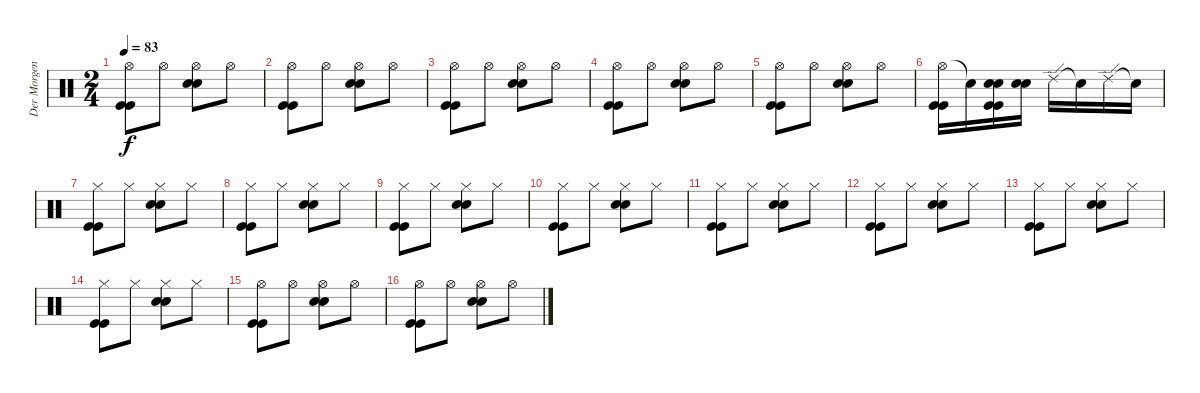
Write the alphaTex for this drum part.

\track ("Der Morgenstern" "Der Morgen") {instrument percussion}
\staff {score}
\articulation defaults
\ts (2 4)
\tempo 83
\clef neutral
\ks c
("Hi-Hat (open)" "Kick (hit)" "Kick (hit)").8{dy f} "Hi-Hat (open)".8 ("Hi-Hat (open)" "Electric Snare (hit)" "Electric Snare (hit)").8 "Hi-Hat (open)".8 |
("Hi-Hat (open)" "Kick (hit)" "Kick (hit)").8 "Hi-Hat (open)".8 ("Hi-Hat (open)" "Electric Snare (hit)" "Electric Snare (hit)").8 "Hi-Hat (open)".8 |
("Hi-Hat (open)" "Kick (hit)" "Kick (hit)").8 "Hi-Hat (open)".8 ("Hi-Hat (open)" "Electric Snare (hit)" "Electric Snare (hit)").8 "Hi-Hat (open)".8 |
("Hi-Hat (open)" "Kick (hit)" "Kick (hit)").8 "Hi-Hat (open)".8 ("Hi-Hat (open)" "Electric Snare (hit)" "Electric Snare (hit)").8 "Hi-Hat (open)".8 |
("Hi-Hat (open)" "Kick (hit)" "Kick (hit)").8 "Hi-Hat (open)".8 ("Hi-Hat (open)" "Electric Snare (hit)" "Electric Snare (hit)").8 "Hi-Hat (open)".8 |
("Hi-Hat (open)" "Kick (hit)" "Kick (hit)").16 "Snare (hit)"{t}.16 ("Electric Snare (hit)" "Electric Snare (hit)" "Kick (hit)" "Kick (hit)").16 ("Electric Snare (hit)" "Electric Snare (hit)").16 "Ride (edge) 2".16 "Snare (hit)"{t}.16 "Ride (edge) 2".16 "Snare (hit)"{t}.16 |
("Hi-Hat (closed)" "Kick (hit)" "Kick (hit)").8 "Hi-Hat (closed)".8 ("Hi-Hat (closed)" "Electric Snare (hit)" "Electric Snare (hit)").8 "Hi-Hat (closed)".8 |
("Hi-Hat (closed)" "Kick (hit)" "Kick (hit)").8 "Hi-Hat (closed)".8 ("Hi-Hat (closed)" "Electric Snare (hit)" "Electric Snare (hit)").8 "Hi-Hat (closed)".8 |
("Hi-Hat (closed)" "Kick (hit)" "Kick (hit)").8 "Hi-Hat (closed)".8 ("Hi-Hat (closed)" "Electric Snare (hit)" "Electric Snare (hit)").8 "Hi-Hat (closed)".8 |
("Hi-Hat (closed)" "Kick (hit)" "Kick (hit)").8 "Hi-Hat (closed)".8 ("Hi-Hat (closed)" "Electric Snare (hit)" "Electric Snare (hit)").8 "Hi-Hat (closed)".8 |
("Hi-Hat (closed)" "Kick (hit)" "Kick (hit)").8 "Hi-Hat (closed)".8 ("Hi-Hat (closed)" "Electric Snare (hit)" "Electric Snare (hit)").8 "Hi-Hat (closed)".8 |
("Hi-Hat (closed)" "Kick (hit)" "Kick (hit)").8 "Hi-Hat (closed)".8 ("Hi-Hat (closed)" "Electric Snare (hit)" "Electric Snare (hit)").8 "Hi-Hat (closed)".8 |
("Hi-Hat (closed)" "Kick (hit)" "Kick (hit)").8 "Hi-Hat (closed)".8 ("Hi-Hat (closed)" "Electric Snare (hit)" "Electric Snare (hit)").8 "Hi-Hat (closed)".8 |
("Hi-Hat (closed)" "Kick (hit)" "Kick (hit)").8 "Hi-Hat (closed)".8 ("Hi-Hat (closed)" "Electric Snare (hit)" "Electric Snare (hit)").8 "Hi-Hat (closed)".8 |
("Hi-Hat (open)" "Kick (hit)" "Kick (hit)").8 "Hi-Hat (open)".8 ("Hi-Hat (open)" "Electric Snare (hit)" "Electric Snare (hit)").8 "Hi-Hat (open)".8 |
("Hi-Hat (open)" "Kick (hit)" "Kick (hit)").8 "Hi-Hat (open)".8 ("Hi-Hat (open)" "Electric Snare (hit)" "Electric Snare (hit)").8 "Hi-Hat (open)".8
